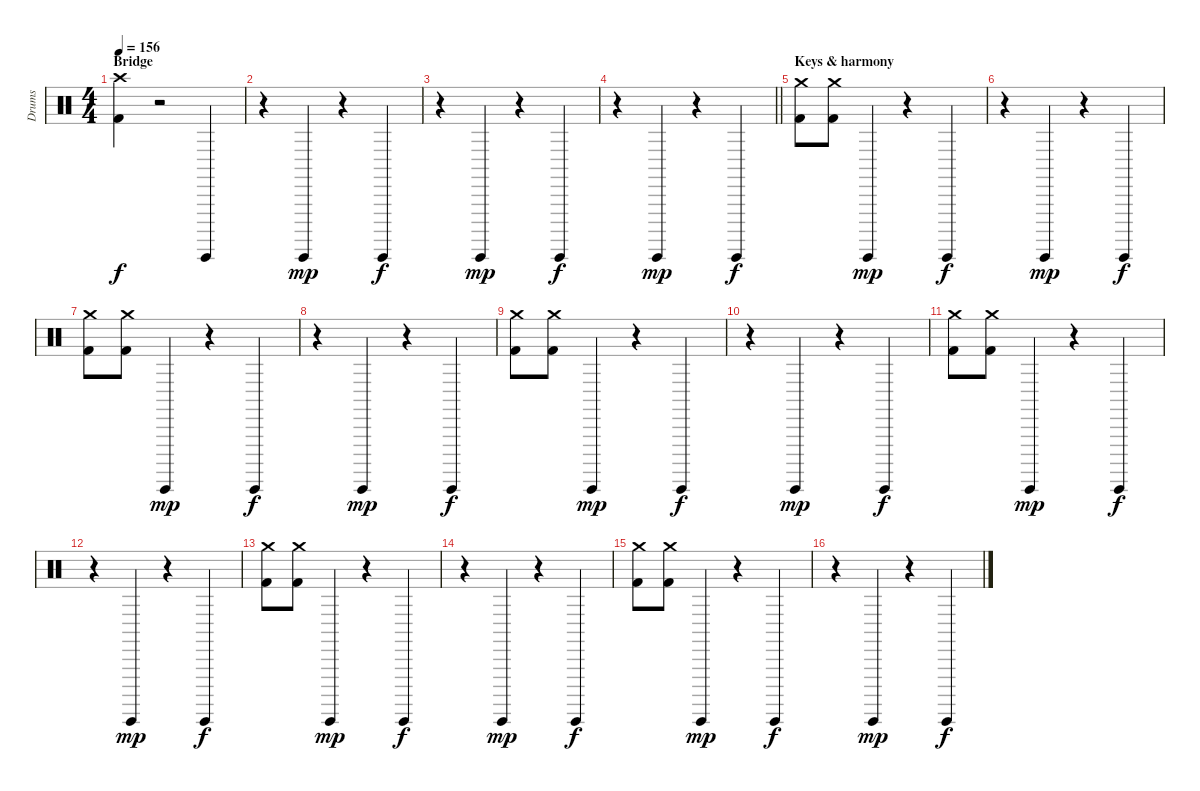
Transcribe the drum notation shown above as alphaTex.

\track ("Drums" "Drums") {instrument percussion}
\staff {score}
\articulation defaults
\ts (4 4)
\section ("" "Bridge")
\tempo 156
\clef neutral
\ks c
("Crash high (hit)" "Kick (hit) 2").4{dy f} r.2 "Guiro (hit)".4 |
r.4 "Guiro (hit)".4{dy mp} r.4 "Guiro (hit)".4{dy f} |
r.4 "Guiro (hit)".4{dy mp} r.4 "Guiro (hit)".4{dy f} |
\barLineRight lightlight
r.4 "Guiro (hit)".4{dy mp} r.4 "Guiro (hit)".4{dy f} |
\section ("" "Keys & harmony")
("Crash medium (hit)" "Kick (hit) 2").8 ("Crash medium (hit)" "Kick (hit) 2").8 "Guiro (hit)".4{dy mp} r.4 "Guiro (hit)".4{dy f} |
r.4 "Guiro (hit)".4{dy mp} r.4 "Guiro (hit)".4{dy f} |
("Crash medium (hit)" "Kick (hit) 2").8 ("Crash medium (hit)" "Kick (hit) 2").8 "Guiro (hit)".4{dy mp} r.4 "Guiro (hit)".4{dy f} |
r.4 "Guiro (hit)".4{dy mp} r.4 "Guiro (hit)".4{dy f} |
("Crash medium (hit)" "Kick (hit) 2").8 ("Crash medium (hit)" "Kick (hit) 2").8 "Guiro (hit)".4{dy mp} r.4 "Guiro (hit)".4{dy f} |
r.4 "Guiro (hit)".4{dy mp} r.4 "Guiro (hit)".4{dy f} |
("Crash medium (hit)" "Kick (hit) 2").8 ("Crash medium (hit)" "Kick (hit) 2").8 "Guiro (hit)".4{dy mp} r.4 "Guiro (hit)".4{dy f} |
r.4 "Guiro (hit)".4{dy mp} r.4 "Guiro (hit)".4{dy f} |
("Crash medium (hit)" "Kick (hit) 2").8 ("Crash medium (hit)" "Kick (hit) 2").8 "Guiro (hit)".4{dy mp} r.4 "Guiro (hit)".4{dy f} |
r.4 "Guiro (hit)".4{dy mp} r.4 "Guiro (hit)".4{dy f} |
("Crash medium (hit)" "Kick (hit) 2").8 ("Crash medium (hit)" "Kick (hit) 2").8 "Guiro (hit)".4{dy mp} r.4 "Guiro (hit)".4{dy f} |
r.4 "Guiro (hit)".4{dy mp} r.4 "Guiro (hit)".4{dy f}
